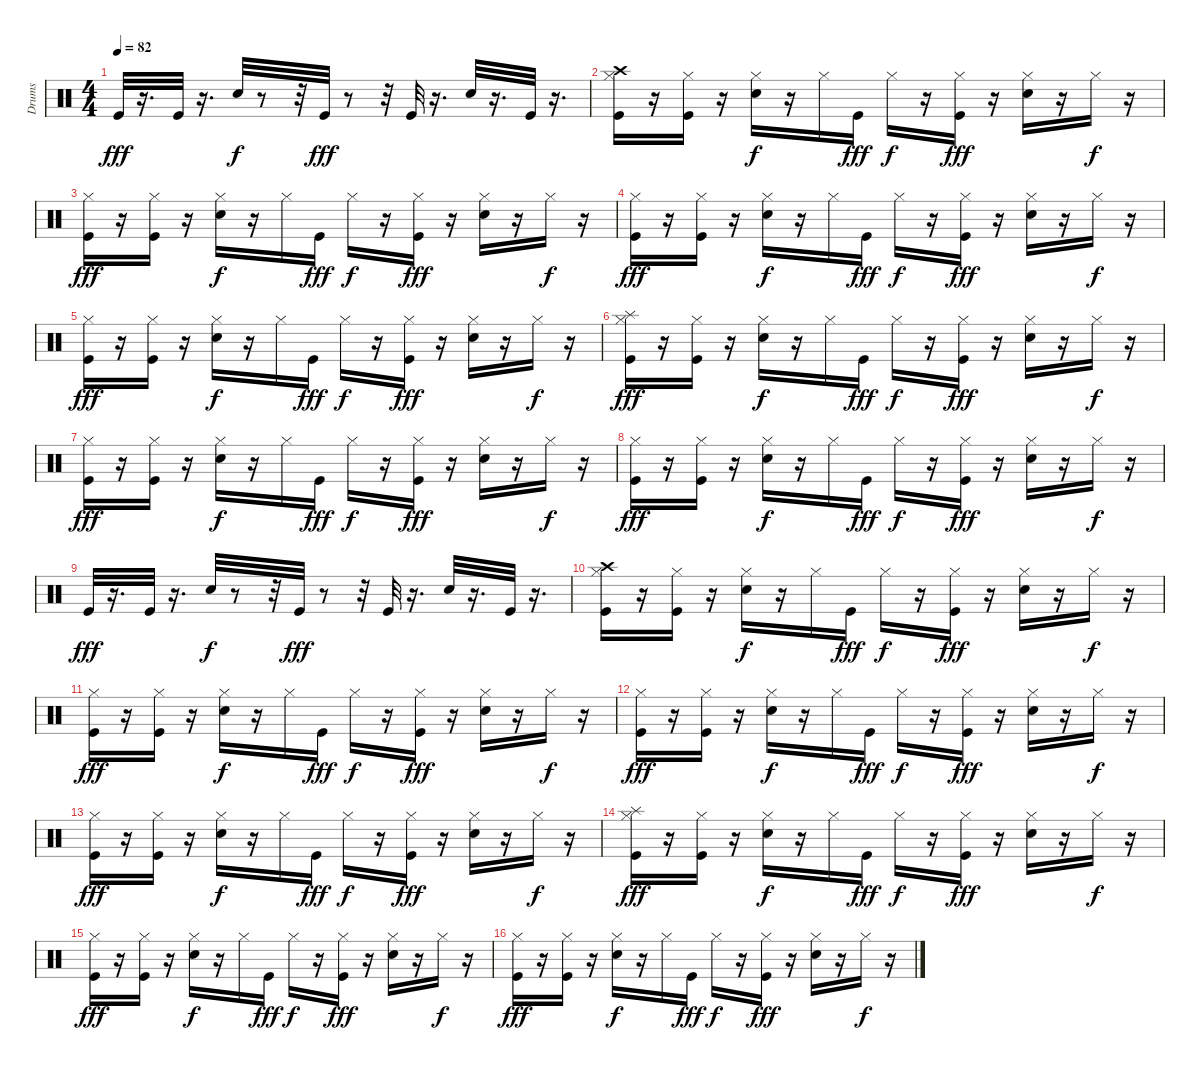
\track ("Drums" "Drums") {instrument percussion}
\staff {score}
\articulation defaults
\ts (4 4)
\tempo 82
\clef neutral
\ks c "Kick (hit)".32{dy fff}
r.16{d} "Kick (hit)".32 r.16{d} "Hand Clap (hit)".32{dy f} r.8 r.32 "Kick (hit)".32{dy fff} r.8 r.32 "Kick (hit)".32 r.16{d} "Electric Snare (hit)".32 r.16{d} "Kick (hit)".32 r.16{d} |
("Hi-Hat (closed)" "Crash high (hit)" "Kick (hit)").16 r.16 ("Hi-Hat (closed)" "Kick (hit)").16 r.16 ("Hi-Hat (closed)" "Electric Snare (hit)").16{dy f} r.16 "Hi-Hat (closed)".16 "Kick (hit)".16{dy fff} "Hi-Hat (closed)".16{dy f} r.16 ("Hi-Hat (closed)" "Kick (hit)").16{dy fff} r.16 ("Hi-Hat (closed)" "Electric Snare (hit)").16 r.16 "Hi-Hat (closed)".16{dy f} r.16 |
("Hi-Hat (closed)" "Kick (hit)").16{dy fff} r.16 ("Hi-Hat (closed)" "Kick (hit)").16 r.16 ("Hi-Hat (closed)" "Electric Snare (hit)").16{dy f} r.16 "Hi-Hat (closed)".16 "Kick (hit)".16{dy fff} "Hi-Hat (closed)".16{dy f} r.16 ("Hi-Hat (closed)" "Kick (hit)").16{dy fff} r.16 ("Hi-Hat (closed)" "Electric Snare (hit)").16 r.16 "Hi-Hat (closed)".16{dy f} r.16 |
("Hi-Hat (closed)" "Kick (hit)").16{dy fff} r.16 ("Hi-Hat (closed)" "Kick (hit)").16 r.16 ("Hi-Hat (closed)" "Electric Snare (hit)").16{dy f} r.16 "Hi-Hat (closed)".16 "Kick (hit)".16{dy fff} "Hi-Hat (closed)".16{dy f} r.16 ("Hi-Hat (closed)" "Kick (hit)").16{dy fff} r.16 ("Hi-Hat (closed)" "Electric Snare (hit)").16 r.16 "Hi-Hat (closed)".16{dy f} r.16 |
("Hi-Hat (closed)" "Kick (hit)").16{dy fff} r.16 ("Hi-Hat (closed)" "Kick (hit)").16 r.16 ("Hi-Hat (closed)" "Electric Snare (hit)").16{dy f} r.16 "Hi-Hat (closed)".16 "Kick (hit)".16{dy fff} "Hi-Hat (closed)".16{dy f} r.16 ("Hi-Hat (closed)" "Kick (hit)").16{dy fff} r.16 ("Hi-Hat (closed)" "Electric Snare (hit)").16 r.16 "Hi-Hat (closed)".16{dy f} r.16 |
("Hi-Hat (closed)" "Splash (hit)" "Kick (hit)").16{dy fff} r.16 ("Hi-Hat (closed)" "Kick (hit)").16 r.16 ("Hi-Hat (closed)" "Electric Snare (hit)").16{dy f} r.16 "Hi-Hat (closed)".16 "Kick (hit)".16{dy fff} "Hi-Hat (closed)".16{dy f} r.16 ("Hi-Hat (closed)" "Kick (hit)").16{dy fff} r.16 ("Hi-Hat (closed)" "Electric Snare (hit)").16 r.16 "Hi-Hat (closed)".16{dy f} r.16 |
("Hi-Hat (closed)" "Kick (hit)").16{dy fff} r.16 ("Hi-Hat (closed)" "Kick (hit)").16 r.16 ("Hi-Hat (closed)" "Electric Snare (hit)").16{dy f} r.16 "Hi-Hat (closed)".16 "Kick (hit)".16{dy fff} "Hi-Hat (closed)".16{dy f} r.16 ("Hi-Hat (closed)" "Kick (hit)").16{dy fff} r.16 ("Hi-Hat (closed)" "Electric Snare (hit)").16 r.16 "Hi-Hat (closed)".16{dy f} r.16 |
("Hi-Hat (closed)" "Kick (hit)").16{dy fff} r.16 ("Hi-Hat (closed)" "Kick (hit)").16 r.16 ("Hi-Hat (closed)" "Electric Snare (hit)").16{dy f} r.16 "Hi-Hat (closed)".16 "Kick (hit)".16{dy fff} "Hi-Hat (closed)".16{dy f} r.16 ("Hi-Hat (closed)" "Kick (hit)").16{dy fff} r.16 ("Hi-Hat (closed)" "Electric Snare (hit)").16 r.16 "Hi-Hat (closed)".16{dy f} r.16 |
"Kick (hit)".32{dy fff} r.16{d} "Kick (hit)".32 r.16{d} "Hand Clap (hit)".32{dy f} r.8 r.32 "Kick (hit)".32{dy fff} r.8 r.32 "Kick (hit)".32 r.16{d} "Electric Snare (hit)".32 r.16{d} "Kick (hit)".32 r.16{d} |
("Hi-Hat (closed)" "Crash high (hit)" "Kick (hit)").16 r.16 ("Hi-Hat (closed)" "Kick (hit)").16 r.16 ("Hi-Hat (closed)" "Electric Snare (hit)").16{dy f} r.16 "Hi-Hat (closed)".16 "Kick (hit)".16{dy fff} "Hi-Hat (closed)".16{dy f} r.16 ("Hi-Hat (closed)" "Kick (hit)").16{dy fff} r.16 ("Hi-Hat (closed)" "Electric Snare (hit)").16 r.16 "Hi-Hat (closed)".16{dy f} r.16 |
("Hi-Hat (closed)" "Kick (hit)").16{dy fff} r.16 ("Hi-Hat (closed)" "Kick (hit)").16 r.16 ("Hi-Hat (closed)" "Electric Snare (hit)").16{dy f} r.16 "Hi-Hat (closed)".16 "Kick (hit)".16{dy fff} "Hi-Hat (closed)".16{dy f} r.16 ("Hi-Hat (closed)" "Kick (hit)").16{dy fff} r.16 ("Hi-Hat (closed)" "Electric Snare (hit)").16 r.16 "Hi-Hat (closed)".16{dy f} r.16 |
("Hi-Hat (closed)" "Kick (hit)").16{dy fff} r.16 ("Hi-Hat (closed)" "Kick (hit)").16 r.16 ("Hi-Hat (closed)" "Electric Snare (hit)").16{dy f} r.16 "Hi-Hat (closed)".16 "Kick (hit)".16{dy fff} "Hi-Hat (closed)".16{dy f} r.16 ("Hi-Hat (closed)" "Kick (hit)").16{dy fff} r.16 ("Hi-Hat (closed)" "Electric Snare (hit)").16 r.16 "Hi-Hat (closed)".16{dy f} r.16 |
("Hi-Hat (closed)" "Kick (hit)").16{dy fff} r.16 ("Hi-Hat (closed)" "Kick (hit)").16 r.16 ("Hi-Hat (closed)" "Electric Snare (hit)").16{dy f} r.16 "Hi-Hat (closed)".16 "Kick (hit)".16{dy fff} "Hi-Hat (closed)".16{dy f} r.16 ("Hi-Hat (closed)" "Kick (hit)").16{dy fff} r.16 ("Hi-Hat (closed)" "Electric Snare (hit)").16 r.16 "Hi-Hat (closed)".16{dy f} r.16 |
("Hi-Hat (closed)" "Splash (hit)" "Kick (hit)").16{dy fff} r.16 ("Hi-Hat (closed)" "Kick (hit)").16 r.16 ("Hi-Hat (closed)" "Electric Snare (hit)").16{dy f} r.16 "Hi-Hat (closed)".16 "Kick (hit)".16{dy fff} "Hi-Hat (closed)".16{dy f} r.16 ("Hi-Hat (closed)" "Kick (hit)").16{dy fff} r.16 ("Hi-Hat (closed)" "Electric Snare (hit)").16 r.16 "Hi-Hat (closed)".16{dy f} r.16 |
("Hi-Hat (closed)" "Kick (hit)").16{dy fff} r.16 ("Hi-Hat (closed)" "Kick (hit)").16 r.16 ("Hi-Hat (closed)" "Electric Snare (hit)").16{dy f} r.16 "Hi-Hat (closed)".16 "Kick (hit)".16{dy fff} "Hi-Hat (closed)".16{dy f} r.16 ("Hi-Hat (closed)" "Kick (hit)").16{dy fff} r.16 ("Hi-Hat (closed)" "Electric Snare (hit)").16 r.16 "Hi-Hat (closed)".16{dy f} r.16 |
("Hi-Hat (closed)" "Kick (hit)").16{dy fff} r.16 ("Hi-Hat (closed)" "Kick (hit)").16 r.16 ("Hi-Hat (closed)" "Electric Snare (hit)").16{dy f} r.16 "Hi-Hat (closed)".16 "Kick (hit)".16{dy fff} "Hi-Hat (closed)".16{dy f} r.16 ("Hi-Hat (closed)" "Kick (hit)").16{dy fff} r.16 ("Hi-Hat (closed)" "Electric Snare (hit)").16 r.16 "Hi-Hat (closed)".16{dy f} r.16
